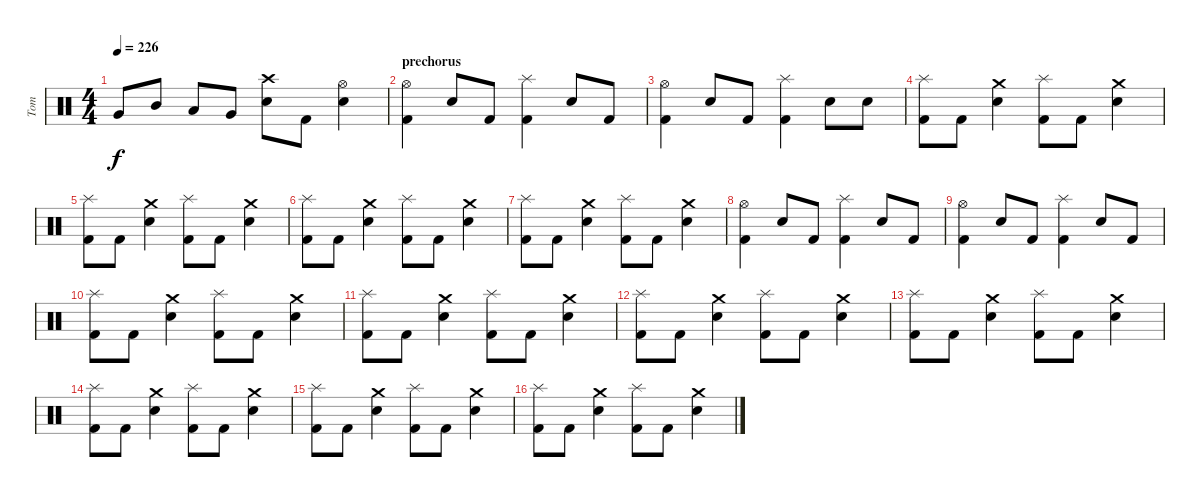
\track ("Tom" "Tom") {instrument percussion}
\staff {score}
\articulation defaults
\ts (4 4)
\tempo 226
\clef neutral
\ks c "Very Low Tom (hit)".8{dy f} "Mid Tom (hit)".8 "Low Tom (hit)".8 "Very Low Tom (hit)".8
("Electric Snare (hit)" "Crash high (hit)").8 "Kick (hit) 2".8 ("Electric Snare (hit)" "Hi-Hat (open)").4 |
\section ("" "prechorus")
("Hi-Hat (open)" "Kick (hit) 2").4 "Electric Snare (hit)".8 "Kick (hit) 2".8 ("Splash (hit)" "Kick (hit) 2").4 "Electric Snare (hit)".8 "Kick (hit) 2".8 |
("Hi-Hat (open)" "Kick (hit) 2").4 "Electric Snare (hit)".8 "Kick (hit) 2".8 ("Splash (hit)" "Kick (hit) 2").4 "Electric Snare (hit)".8 "Electric Snare (hit)".8 |
("Splash (hit)" "Kick (hit) 2").8 "Kick (hit) 2".8 ("Crash medium (hit)" "Electric Snare (hit)").4 ("Splash (hit)" "Kick (hit) 2").8 "Kick (hit) 2".8 ("Crash medium (hit)" "Electric Snare (hit)").4 |
("Splash (hit)" "Kick (hit) 2").8 "Kick (hit) 2".8 ("Crash medium (hit)" "Electric Snare (hit)").4 ("Splash (hit)" "Kick (hit) 2").8 "Kick (hit) 2".8 ("Crash medium (hit)" "Electric Snare (hit)").4 |
("Splash (hit)" "Kick (hit) 2").8 "Kick (hit) 2".8 ("Crash medium (hit)" "Electric Snare (hit)").4 ("Splash (hit)" "Kick (hit) 2").8 "Kick (hit) 2".8 ("Crash medium (hit)" "Electric Snare (hit)").4 |
("Splash (hit)" "Kick (hit) 2").8 "Kick (hit) 2".8 ("Crash medium (hit)" "Electric Snare (hit)").4 ("Splash (hit)" "Kick (hit) 2").8 "Kick (hit) 2".8 ("Crash medium (hit)" "Electric Snare (hit)").4 |
("Hi-Hat (open)" "Kick (hit) 2").4 "Electric Snare (hit)".8 "Kick (hit) 2".8 ("Splash (hit)" "Kick (hit) 2").4 "Electric Snare (hit)".8 "Kick (hit) 2".8 |
("Hi-Hat (open)" "Kick (hit) 2").4 "Electric Snare (hit)".8 "Kick (hit) 2".8 ("Splash (hit)" "Kick (hit) 2").4 "Electric Snare (hit)".8 "Kick (hit) 2".8 |
("Splash (hit)" "Kick (hit) 2").8 "Kick (hit) 2".8 ("Crash medium (hit)" "Electric Snare (hit)").4 ("Splash (hit)" "Kick (hit) 2").8 "Kick (hit) 2".8 ("Crash medium (hit)" "Electric Snare (hit)").4 |
("Splash (hit)" "Kick (hit) 2").8 "Kick (hit) 2".8 ("Crash medium (hit)" "Electric Snare (hit)").4 ("Splash (hit)" "Kick (hit) 2").8 "Kick (hit) 2".8 ("Crash medium (hit)" "Electric Snare (hit)").4 |
("Splash (hit)" "Kick (hit) 2").8 "Kick (hit) 2".8 ("Crash medium (hit)" "Electric Snare (hit)").4 ("Splash (hit)" "Kick (hit) 2").8 "Kick (hit) 2".8 ("Crash medium (hit)" "Electric Snare (hit)").4 |
("Splash (hit)" "Kick (hit) 2").8 "Kick (hit) 2".8 ("Crash medium (hit)" "Electric Snare (hit)").4 ("Splash (hit)" "Kick (hit) 2").8 "Kick (hit) 2".8 ("Crash medium (hit)" "Electric Snare (hit)").4 |
("Splash (hit)" "Kick (hit) 2").8 "Kick (hit) 2".8 ("Crash medium (hit)" "Electric Snare (hit)").4 ("Splash (hit)" "Kick (hit) 2").8 "Kick (hit) 2".8 ("Crash medium (hit)" "Electric Snare (hit)").4 |
("Splash (hit)" "Kick (hit) 2").8 "Kick (hit) 2".8 ("Crash medium (hit)" "Electric Snare (hit)").4 ("Splash (hit)" "Kick (hit) 2").8 "Kick (hit) 2".8 ("Crash medium (hit)" "Electric Snare (hit)").4 |
("Splash (hit)" "Kick (hit) 2").8 "Kick (hit) 2".8 ("Crash medium (hit)" "Electric Snare (hit)").4 ("Splash (hit)" "Kick (hit) 2").8 "Kick (hit) 2".8 ("Crash medium (hit)" "Electric Snare (hit)").4
